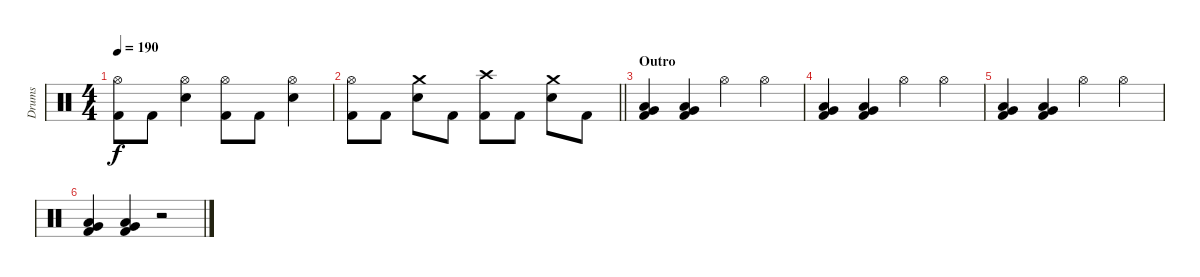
\track ("Drums" "Drums") {instrument percussion}
\staff {score}
\articulation defaults
\ts (4 4)
\tempo 190
\clef neutral
\ks c
("Hi-Hat (open)" "Kick (hit) 2").8{dy f} "Kick (hit) 2".8 ("Hi-Hat (open)" "Electric Snare (hit)").4 ("Hi-Hat (open)" "Kick (hit) 2").8 "Kick (hit) 2".8 ("Hi-Hat (open)" "Electric Snare (hit)").4 |
\barLineRight lightlight
("Hi-Hat (open)" "Kick (hit) 2").8 "Kick (hit) 2".8 ("Crash medium (hit)" "Electric Snare (hit)").8 "Kick (hit) 2".8 ("Crash high (hit)" "Kick (hit) 2").8 "Kick (hit) 2".8 ("Crash medium (hit)" "Electric Snare (hit)").8 "Kick (hit) 2".8 |
\section ("" "Outro")
("Low Floor Tom (hit)" "Very Low Tom (hit)" "Kick (hit) 2").4 ("Low Floor Tom (hit)" "Very Low Tom (hit)" "Kick (hit) 2").4 "Hi-Hat (open)".4 "Hi-Hat (open)".4 |
("Low Floor Tom (hit)" "Very Low Tom (hit)" "Kick (hit) 2").4 ("Low Floor Tom (hit)" "Very Low Tom (hit)" "Kick (hit) 2").4 "Hi-Hat (open)".4 "Hi-Hat (open)".4 |
("Low Floor Tom (hit)" "Very Low Tom (hit)" "Kick (hit) 2").4 ("Low Floor Tom (hit)" "Very Low Tom (hit)" "Kick (hit) 2").4 "Hi-Hat (open)".4 "Hi-Hat (open)".4 |
("Low Floor Tom (hit)" "Very Low Tom (hit)" "Kick (hit) 2").4 ("Low Floor Tom (hit)" "Very Low Tom (hit)" "Kick (hit) 2").4 r.2
